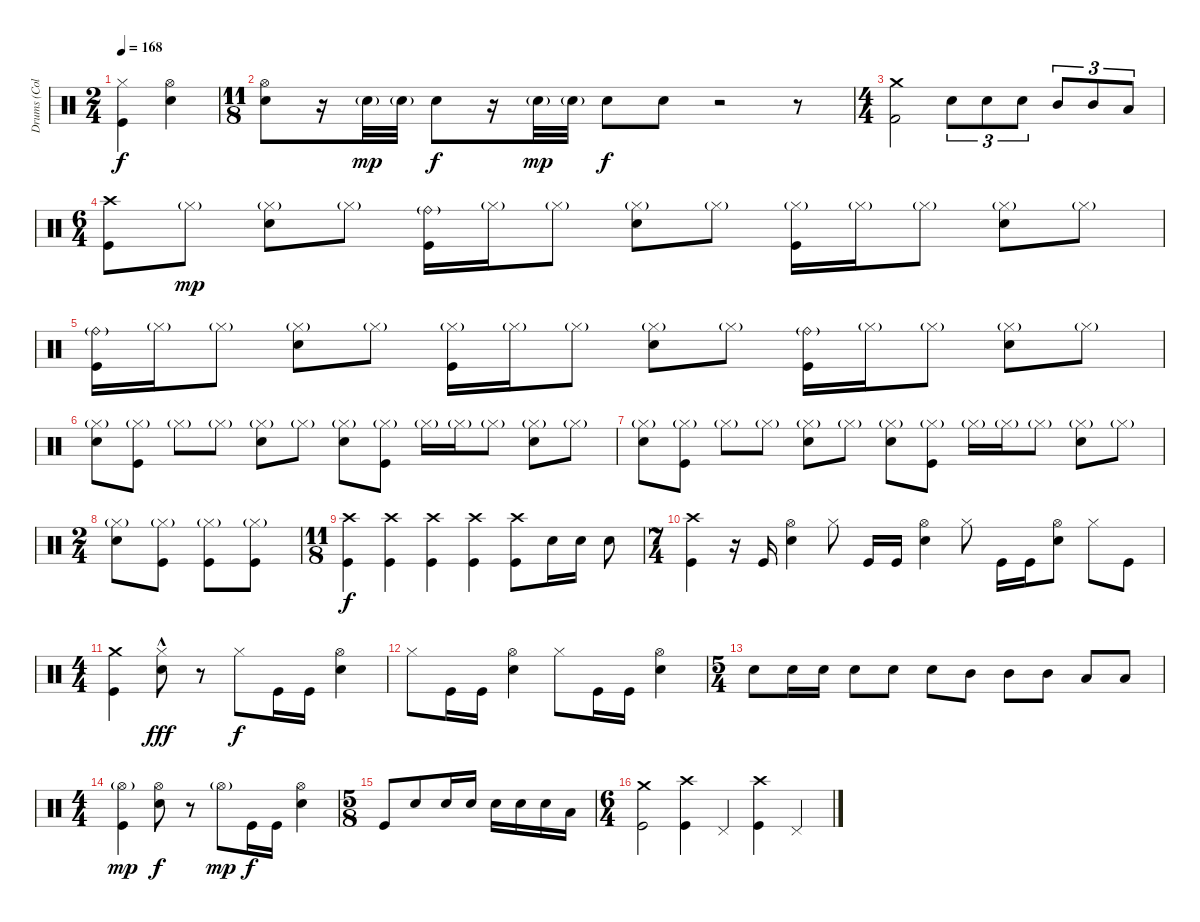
\track ("Drums (Collins)" "Drums (Col") {instrument percussion}
\staff {score}
\articulation defaults
\ts (2 4)
\tempo 168
\clef neutral
\ks c
("Hi-Hat (closed)" "Kick (hit)").4{dy f} ("Hi-Hat (open)" "Snare (hit) 2").4 |
\ts (11 8)
("Hi-Hat (open)" "Snare (hit) 2").8 r.16 "Snare (hit) 2"{g}.32{dy mp} "Snare (hit) 2"{g}.32 "Snare (hit) 2".8{dy f} r.16 "Snare (hit) 2"{g}.32{dy mp} "Snare (hit) 2"{g}.32 "Snare (hit) 2".8{dy f} "Snare (hit) 2".8 r.2 r.8 |
\ts (4 4)
("Crash medium (hit)" "Kick (hit) 2").2 "Snare (hit) 2".8{tu (3 2)} "Snare (hit) 2".8{tu (3 2)} "Snare (hit) 2".8{tu (3 2)} "Mid Tom (hit)".8{tu (3 2)} "Mid Tom (hit)".8{tu (3 2)} "Low Tom (hit)".8{tu (3 2)} |
\ts (6 4)
("Crash high (hit)" "Kick (hit)").8 "Hi-Hat (closed)"{g}.8{dy mp} ("Hi-Hat (closed)"{g} "Snare (hit) 2").8 "Hi-Hat (closed)"{g}.8 ("Ride (bell)"{g} "Kick (hit)").16 "Hi-Hat (closed)"{g}.16 "Hi-Hat (closed)"{g}.8 ("Hi-Hat (closed)"{g} "Snare (hit) 2").8 "Hi-Hat (closed)"{g}.8 ("Hi-Hat (closed)"{g} "Kick (hit)").16 "Hi-Hat (closed)"{g}.16 "Hi-Hat (closed)"{g}.8 ("Hi-Hat (closed)"{g} "Snare (hit) 2").8 "Hi-Hat (closed)"{g}.8 |
("Ride (bell)"{g} "Kick (hit)").16 "Hi-Hat (closed)"{g}.16 "Hi-Hat (closed)"{g}.8 ("Hi-Hat (closed)"{g} "Snare (hit) 2").8 "Hi-Hat (closed)"{g}.8 ("Hi-Hat (closed)"{g} "Kick (hit)").16 "Hi-Hat (closed)"{g}.16 "Hi-Hat (closed)"{g}.8 ("Hi-Hat (closed)"{g} "Snare (hit) 2").8 "Hi-Hat (closed)"{g}.8 ("Ride (bell)"{g} "Kick (hit)").16 "Hi-Hat (closed)"{g}.16 "Hi-Hat (closed)"{g}.8 ("Hi-Hat (closed)"{g} "Snare (hit) 2").8 "Hi-Hat (closed)"{g}.8 |
("Hi-Hat (closed)"{g} "Snare (hit) 2").8 ("Hi-Hat (closed)"{g} "Kick (hit)").8 "Hi-Hat (closed)"{g}.8 "Hi-Hat (closed)"{g}.8 ("Hi-Hat (closed)"{g} "Snare (hit) 2").8 "Hi-Hat (closed)"{g}.8 ("Hi-Hat (closed)"{g} "Snare (hit) 2").8 ("Hi-Hat (closed)"{g} "Kick (hit)").8 "Hi-Hat (closed)"{g}.16 "Hi-Hat (closed)"{g}.16 "Hi-Hat (closed)"{g}.8 ("Hi-Hat (closed)"{g} "Snare (hit) 2").8 "Hi-Hat (closed)"{g}.8 |
("Hi-Hat (closed)"{g} "Snare (hit) 2").8 ("Hi-Hat (closed)"{g} "Kick (hit)").8 "Hi-Hat (closed)"{g}.8 "Hi-Hat (closed)"{g}.8 ("Hi-Hat (closed)"{g} "Snare (hit) 2").8 "Hi-Hat (closed)"{g}.8 ("Hi-Hat (closed)"{g} "Snare (hit) 2").8 ("Hi-Hat (closed)"{g} "Kick (hit)").8 "Hi-Hat (closed)"{g}.16 "Hi-Hat (closed)"{g}.16 "Hi-Hat (closed)"{g}.8 ("Hi-Hat (closed)"{g} "Snare (hit) 2").8 "Hi-Hat (closed)"{g}.8 |
\ts (2 4)
("Hi-Hat (closed)"{g} "Snare (hit) 2").8 ("Hi-Hat (closed)"{g} "Kick (hit)").8 ("Hi-Hat (closed)"{g} "Kick (hit)").8 ("Hi-Hat (closed)"{g} "Kick (hit)").8 |
\ts (11 8)
("Crash high (hit)" "Kick (hit)").4{dy f} ("Crash high (hit)" "Kick (hit)").4 ("Crash high (hit)" "Kick (hit)").4 ("Crash high (hit)" "Kick (hit)").4 ("Crash high (hit)" "Kick (hit)").8 "Electric Snare (hit)".16 "Electric Snare (hit)".16 "Electric Snare (hit)".8 |
\ts (7 4)
("Crash high (hit)" "Kick (hit)").4 r.16 "Kick (hit)".16 ("Hi-Hat (open)" "Snare (hit) 2").4 "Hi-Hat (closed)".8 "Kick (hit)".16 "Kick (hit)".16 ("Hi-Hat (open)" "Snare (hit) 2").4 "Hi-Hat (closed)".8 "Kick (hit)".16 "Kick (hit)".16 ("Hi-Hat (open)" "Snare (hit) 2").8 "Hi-Hat (closed)".8 "Kick (hit)".8 |
\ts (4 4)
("Crash medium (hit)" "Kick (hit)").4 ("Hi-Hat (closed)"{hac} "Snare (hit) 2").8{dy fff} r.8 "Hi-Hat (closed)".8{dy f} "Kick (hit)".16 "Kick (hit)".16 ("Hi-Hat (open)" "Snare (hit) 2").4 |
"Hi-Hat (closed)".8 "Kick (hit)".16 "Kick (hit)".16 ("Hi-Hat (open)" "Snare (hit) 2").4 "Hi-Hat (closed)".8 "Kick (hit)".16 "Kick (hit)".16 ("Hi-Hat (open)" "Snare (hit) 2").4 |
\ts (5 4)
"Snare (hit) 2".8 "Snare (hit) 2".16 "Snare (hit) 2".16 "Snare (hit) 2".8 "Snare (hit) 2".8 "Snare (hit) 2".8 "Mid Tom (hit)".8 "Mid Tom (hit)".8 "Mid Tom (hit)".8 "Low Tom (hit)".8 "Low Tom (hit)".8 |
\ts (4 4)
("Hi-Hat (open)"{g} "Kick (hit)").4{dy mp} ("Hi-Hat (open)" "Snare (hit) 2").8{dy f} r.8 "Hi-Hat (open)"{g}.8{dy mp} "Kick (hit)".16{dy f} "Kick (hit)".16 ("Hi-Hat (open)" "Snare (hit) 2").4 |
\ts (5 8)
"Kick (hit)".8 "Snare (hit) 2".8 "Snare (hit) 2".16 "Snare (hit) 2".16 "Snare (hit) 2".16 "Snare (hit) 2".16 "Snare (hit) 2".16 "Low Tom (hit)".16 |
\ts (6 4)
("Crash medium (hit)" "Kick (hit)").2 ("Crash high (hit)" "Kick (hit)").4 "Pedal Hi-Hat (hit)".4 ("Crash high (hit)" "Kick (hit)").4 "Pedal Hi-Hat (hit)".4
